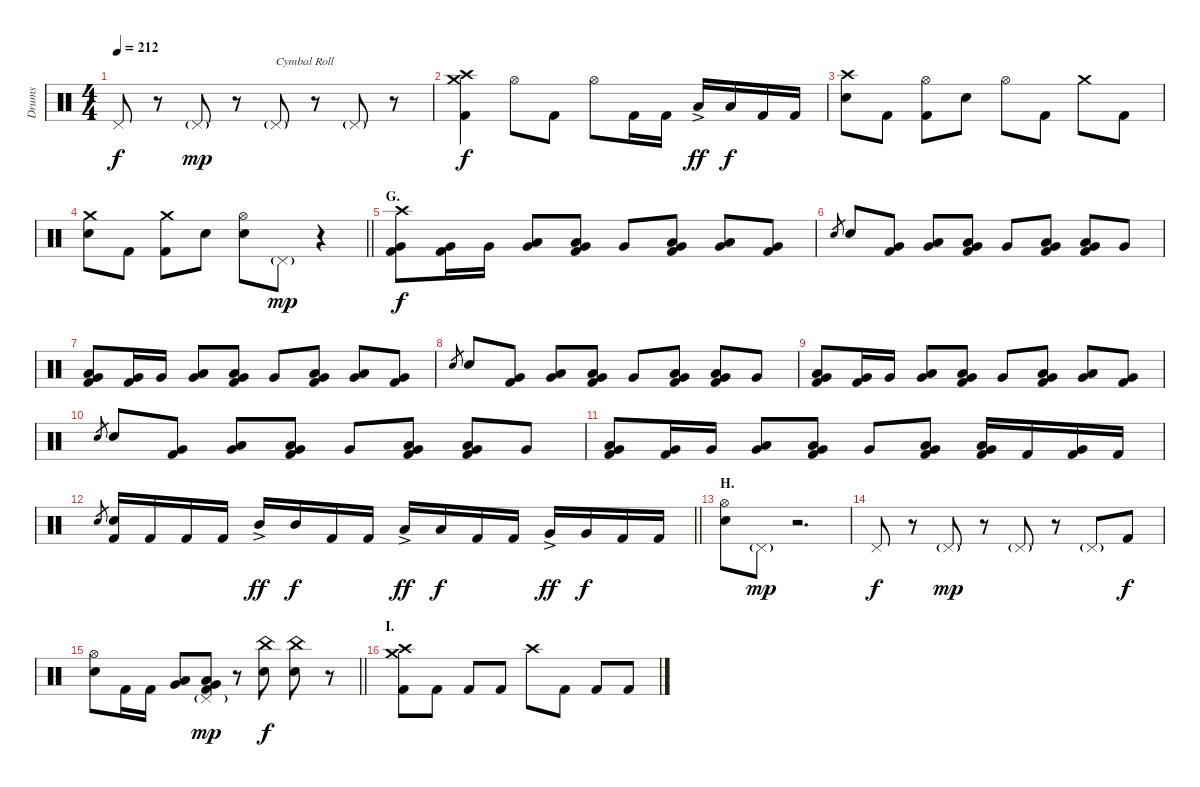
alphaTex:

\track ("Drums" "Drums") {instrument percussion}
\staff {score}
\articulation defaults
\ts (4 4)
\tempo 212
\clef neutral
\ks c "Pedal Hi-Hat (hit)".8{dy f}
r.8 "Pedal Hi-Hat (hit)"{g}.8{dy mp} r.8 "Pedal Hi-Hat (hit)"{g}.8{txt "Cymbal Roll"} r.8 "Pedal Hi-Hat (hit)"{g}.8 r.8 |
("Crash medium (hit)" "Crash high (hit)" "Kick (hit) 2").4{dy f} "Hi-Hat (open)".8 "Kick (hit) 2".8 "Hi-Hat (open)".8 "Kick (hit) 2".16 "Kick (hit) 2".16 "Low Tom (hit)"{ac}.16{dy ff} "Low Tom (hit)".16{dy f} "Kick (hit) 2".16 "Kick (hit) 2".16 |
("Crash high (hit)" "Electric Snare (hit)").8 "Kick (hit) 2".8 ("Hi-Hat (open)" "Kick (hit) 2").8 "Electric Snare (hit)".8 "Hi-Hat (open)".8 "Kick (hit) 2".8 "Crash medium (hit)".8 "Kick (hit) 2".8 |
\barLineRight lightlight
("Crash medium (hit)" "Electric Snare (hit)").8 "Kick (hit) 2".8 ("Crash medium (hit)" "Kick (hit) 2").8 "Electric Snare (hit)".8 ("Hi-Hat (open)" "Electric Snare (hit)").8 "Pedal Hi-Hat (hit)"{g}.8{dy mp} r.4 |
\section ("" "G.")
("Crash high (hit)" "Very Low Tom (hit)" "Kick (hit) 2").8{dy f} ("Very Low Tom (hit)" "Kick (hit) 2").16 "Very Low Tom (hit)".16 ("Low Tom (hit)" "Very Low Tom (hit)").8 ("Low Tom (hit)" "Very Low Tom (hit)" "Kick (hit) 2").8 "Very Low Tom (hit)".8 ("Low Tom (hit)" "Very Low Tom (hit)" "Kick (hit) 2").8 ("Low Tom (hit)" "Very Low Tom (hit)").8 ("Very Low Tom (hit)" "Kick (hit) 2").8 |
"Electric Snare (hit)".8{gr} "Electric Snare (hit)".8 ("Very Low Tom (hit)" "Kick (hit) 2").8 ("Low Tom (hit)" "Very Low Tom (hit)").8 ("Low Tom (hit)" "Very Low Tom (hit)" "Kick (hit) 2").8 "Very Low Tom (hit)".8 ("Low Tom (hit)" "Very Low Tom (hit)" "Kick (hit) 2").8 ("Low Tom (hit)" "Very Low Tom (hit)" "Kick (hit) 2").8 "Very Low Tom (hit)".8 |
("Low Tom (hit)" "Very Low Tom (hit)" "Kick (hit) 2").8 ("Very Low Tom (hit)" "Kick (hit) 2").16 "Very Low Tom (hit)".16 ("Low Tom (hit)" "Very Low Tom (hit)").8 ("Low Tom (hit)" "Very Low Tom (hit)" "Kick (hit) 2").8 "Very Low Tom (hit)".8 ("Low Tom (hit)" "Very Low Tom (hit)" "Kick (hit) 2").8 ("Low Tom (hit)" "Very Low Tom (hit)").8 ("Very Low Tom (hit)" "Kick (hit) 2").8 |
"Electric Snare (hit)".8{gr} "Electric Snare (hit)".8 ("Very Low Tom (hit)" "Kick (hit) 2").8 ("Low Tom (hit)" "Very Low Tom (hit)").8 ("Low Tom (hit)" "Very Low Tom (hit)" "Kick (hit) 2").8 "Very Low Tom (hit)".8 ("Low Tom (hit)" "Very Low Tom (hit)" "Kick (hit) 2").8 ("Low Tom (hit)" "Very Low Tom (hit)" "Kick (hit) 2").8 "Very Low Tom (hit)".8 |
("Low Tom (hit)" "Very Low Tom (hit)" "Kick (hit) 2").8 ("Very Low Tom (hit)" "Kick (hit) 2").16 "Very Low Tom (hit)".16 ("Low Tom (hit)" "Very Low Tom (hit)").8 ("Low Tom (hit)" "Very Low Tom (hit)" "Kick (hit) 2").8 "Very Low Tom (hit)".8 ("Low Tom (hit)" "Very Low Tom (hit)" "Kick (hit) 2").8 ("Low Tom (hit)" "Very Low Tom (hit)").8 ("Very Low Tom (hit)" "Kick (hit) 2").8 |
"Electric Snare (hit)".8{gr} "Electric Snare (hit)".8 ("Very Low Tom (hit)" "Kick (hit) 2").8 ("Low Tom (hit)" "Very Low Tom (hit)").8 ("Low Tom (hit)" "Very Low Tom (hit)" "Kick (hit) 2").8 "Very Low Tom (hit)".8 ("Low Tom (hit)" "Very Low Tom (hit)" "Kick (hit) 2").8 ("Low Tom (hit)" "Very Low Tom (hit)" "Kick (hit) 2").8 "Very Low Tom (hit)".8 |
("Low Tom (hit)" "Very Low Tom (hit)" "Kick (hit) 2").8 ("Very Low Tom (hit)" "Kick (hit) 2").16 "Very Low Tom (hit)".16 ("Low Tom (hit)" "Very Low Tom (hit)").8 ("Low Tom (hit)" "Very Low Tom (hit)" "Kick (hit) 2").8 "Very Low Tom (hit)".8 ("Low Tom (hit)" "Very Low Tom (hit)" "Kick (hit) 2").8 ("Low Tom (hit)" "Very Low Tom (hit)" "Kick (hit) 2").16 "Kick (hit) 2".16 ("Very Low Tom (hit)" "Kick (hit) 2").16 "Kick (hit) 2".16 |
\barLineRight lightlight "Electric Snare (hit)".8{gr}
("Electric Snare (hit)" "Kick (hit) 2").16 "Kick (hit) 2".16 "Kick (hit) 2".16 "Kick (hit) 2".16 "Mid Tom (hit)"{ac}.16{dy ff} "Mid Tom (hit)".16{dy f} "Kick (hit) 2".16 "Kick (hit) 2".16 "Low Tom (hit)"{ac}.16{dy ff} "Low Tom (hit)".16{dy f} "Kick (hit) 2".16 "Kick (hit) 2".16 "Very Low Tom (hit)"{ac}.16{dy ff} "Very Low Tom (hit)".16{dy f} "Kick (hit) 2".16 "Kick (hit) 2".16 |
\section ("" "H.")
("Hi-Hat (open)" "Electric Snare (hit)").8 "Pedal Hi-Hat (hit)"{g}.8{dy mp} r.2{d} |
"Pedal Hi-Hat (hit)".8{dy f} r.8 "Pedal Hi-Hat (hit)"{g}.8{dy mp} r.8 "Pedal Hi-Hat (hit)"{g}.8 r.8 "Pedal Hi-Hat (hit)"{g}.8 "Kick (hit) 2".8{dy f} |
\barLineRight lightlight
("Hi-Hat (open)" "Electric Snare (hit)").8 "Kick (hit) 2".16 "Kick (hit) 2".16 ("Low Tom (hit)" "Very Low Tom (hit)").8 ("Pedal Hi-Hat (hit)"{g} "Low Tom (hit)" "Very Low Tom (hit)" "Kick (hit) 2").8{dy mp} r.8 ("China (hit)" "Electric Snare (hit)").8{dy f} ("China (hit)" "Electric Snare (hit)").8 r.8 |
\section ("" "I.")
("Crash medium (hit)" "Crash high (hit)" "Kick (hit) 2").8 "Kick (hit) 2".8 "Kick (hit) 2".8 "Kick (hit) 2".8 "Crash high (hit)".8 "Kick (hit) 2".8 "Kick (hit) 2".8 "Kick (hit) 2".8
